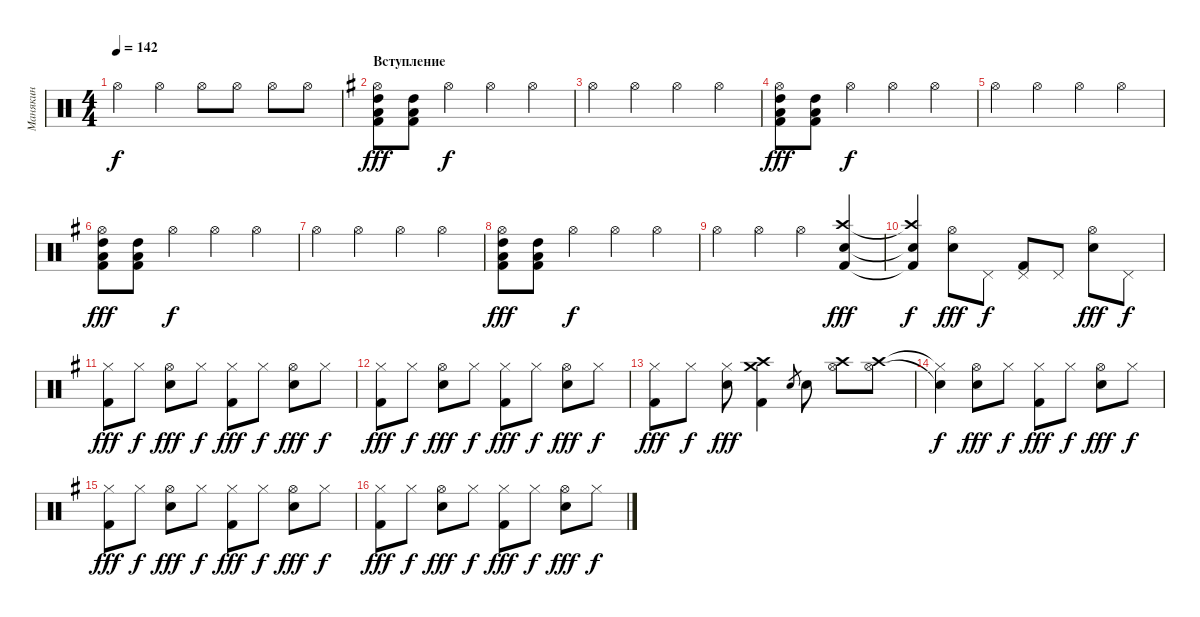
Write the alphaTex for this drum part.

\track ("Манякин" "Манякин") {instrument percussion}
\staff {score}
\articulation defaults
\ts (4 4)
\tempo 142
\clef neutral
\ks c "Hi-Hat (open)".4{dy f} "Hi-Hat (open)".4 "Hi-Hat (open)".8 "Hi-Hat (open)".8 "Hi-Hat (open)".8 "Hi-Hat (open)".8
|
\section ("" "Вступление")
\ks eminor
("Hi-Hat (open)" "High Tom (hit)" "Low Tom (hit)" "Kick (hit) 2").8{dy fff} ("High Tom (hit)" "Low Tom (hit)" "Kick (hit) 2").8 "Hi-Hat (open)".4{dy f} "Hi-Hat (open)".4 "Hi-Hat (open)".4 |
"Hi-Hat (open)".4 "Hi-Hat (open)".4 "Hi-Hat (open)".4 "Hi-Hat (open)".4 |
("Hi-Hat (open)" "High Tom (hit)" "Low Tom (hit)" "Kick (hit) 2").8{dy fff} ("High Tom (hit)" "Low Tom (hit)" "Kick (hit) 2").8 "Hi-Hat (open)".4{dy f} "Hi-Hat (open)".4 "Hi-Hat (open)".4 |
"Hi-Hat (open)".4 "Hi-Hat (open)".4 "Hi-Hat (open)".4 "Hi-Hat (open)".4 |
("Hi-Hat (open)" "High Tom (hit)" "Low Tom (hit)" "Kick (hit) 2").8{dy fff} ("High Tom (hit)" "Low Tom (hit)" "Kick (hit) 2").8 "Hi-Hat (open)".4{dy f} "Hi-Hat (open)".4 "Hi-Hat (open)".4 |
"Hi-Hat (open)".4 "Hi-Hat (open)".4 "Hi-Hat (open)".4 "Hi-Hat (open)".4 |
("Hi-Hat (open)" "High Tom (hit)" "Low Tom (hit)" "Kick (hit) 2").8{dy fff} ("High Tom (hit)" "Low Tom (hit)" "Kick (hit) 2").8 "Hi-Hat (open)".4{dy f} "Hi-Hat (open)".4 "Hi-Hat (open)".4 |
"Hi-Hat (open)".4 "Hi-Hat (open)".4 "Hi-Hat (open)".4 ("Crash high (hit)" "Electric Snare (hit)" "Kick (hit) 2").4{dy fff} |
("Crash high (hit)"{t} "Electric Snare (hit)"{t} "Kick (hit) 2"{t}).4{dy f} ("Hi-Hat (open)" "Electric Snare (hit)").8{dy fff} "Pedal Hi-Hat (hit)".8{dy f} ("Pedal Hi-Hat (hit)" "Kick (hit) 2").8 "Pedal Hi-Hat (hit)".8 ("Hi-Hat (open)" "Electric Snare (hit)").8{dy fff} "Pedal Hi-Hat (hit)".8{dy f} |
("Hi-Hat (closed)" "Kick (hit) 2").8{dy fff} "Hi-Hat (closed)".8{dy f} ("Hi-Hat (open)" "Electric Snare (hit)").8{dy fff} "Hi-Hat (closed)".8{dy f} ("Hi-Hat (closed)" "Kick (hit) 2").8{dy fff} "Hi-Hat (closed)".8{dy f} ("Hi-Hat (open)" "Electric Snare (hit)").8{dy fff} "Hi-Hat (closed)".8{dy f} |
("Hi-Hat (closed)" "Kick (hit) 2").8{dy fff} "Hi-Hat (closed)".8{dy f} ("Hi-Hat (open)" "Electric Snare (hit)").8{dy fff} "Hi-Hat (closed)".8{dy f} ("Hi-Hat (closed)" "Kick (hit) 2").8{dy fff} "Hi-Hat (closed)".8{dy f} ("Hi-Hat (open)" "Electric Snare (hit)").8{dy fff} "Hi-Hat (closed)".8{dy f} |
("Hi-Hat (closed)" "Kick (hit) 2").8{dy fff} "Hi-Hat (closed)".8{dy f} ("Hi-Hat (closed)" "Electric Snare (hit)").8{dy fff} ("Crash high (hit)" "Crash medium (hit)" "Kick (hit) 2").4 "Electric Snare (hit)".8{gr} "Electric Snare (hit)".8 ("Crash high (hit)" "Hi-Hat (open)").8 ("Crash high (hit)" "Hi-Hat (open)").8 |
("Hi-Hat (closed)"{t} "Snare (hit)"{t}).4{dy f} ("Hi-Hat (open)" "Electric Snare (hit)").8{dy fff} "Hi-Hat (closed)".8{dy f} ("Hi-Hat (closed)" "Kick (hit) 2").8{dy fff} "Hi-Hat (closed)".8{dy f} ("Hi-Hat (open)" "Electric Snare (hit)").8{dy fff} "Hi-Hat (closed)".8{dy f} |
("Hi-Hat (closed)" "Kick (hit) 2").8{dy fff} "Hi-Hat (closed)".8{dy f} ("Hi-Hat (open)" "Electric Snare (hit)").8{dy fff} "Hi-Hat (closed)".8{dy f} ("Hi-Hat (closed)" "Kick (hit) 2").8{dy fff} "Hi-Hat (closed)".8{dy f} ("Hi-Hat (open)" "Electric Snare (hit)").8{dy fff} "Hi-Hat (closed)".8{dy f} |
("Hi-Hat (closed)" "Kick (hit) 2").8{dy fff} "Hi-Hat (closed)".8{dy f} ("Hi-Hat (open)" "Electric Snare (hit)").8{dy fff} "Hi-Hat (closed)".8{dy f} ("Hi-Hat (closed)" "Kick (hit) 2").8{dy fff} "Hi-Hat (closed)".8{dy f} ("Hi-Hat (open)" "Electric Snare (hit)").8{dy fff} "Hi-Hat (closed)".8{dy f}
